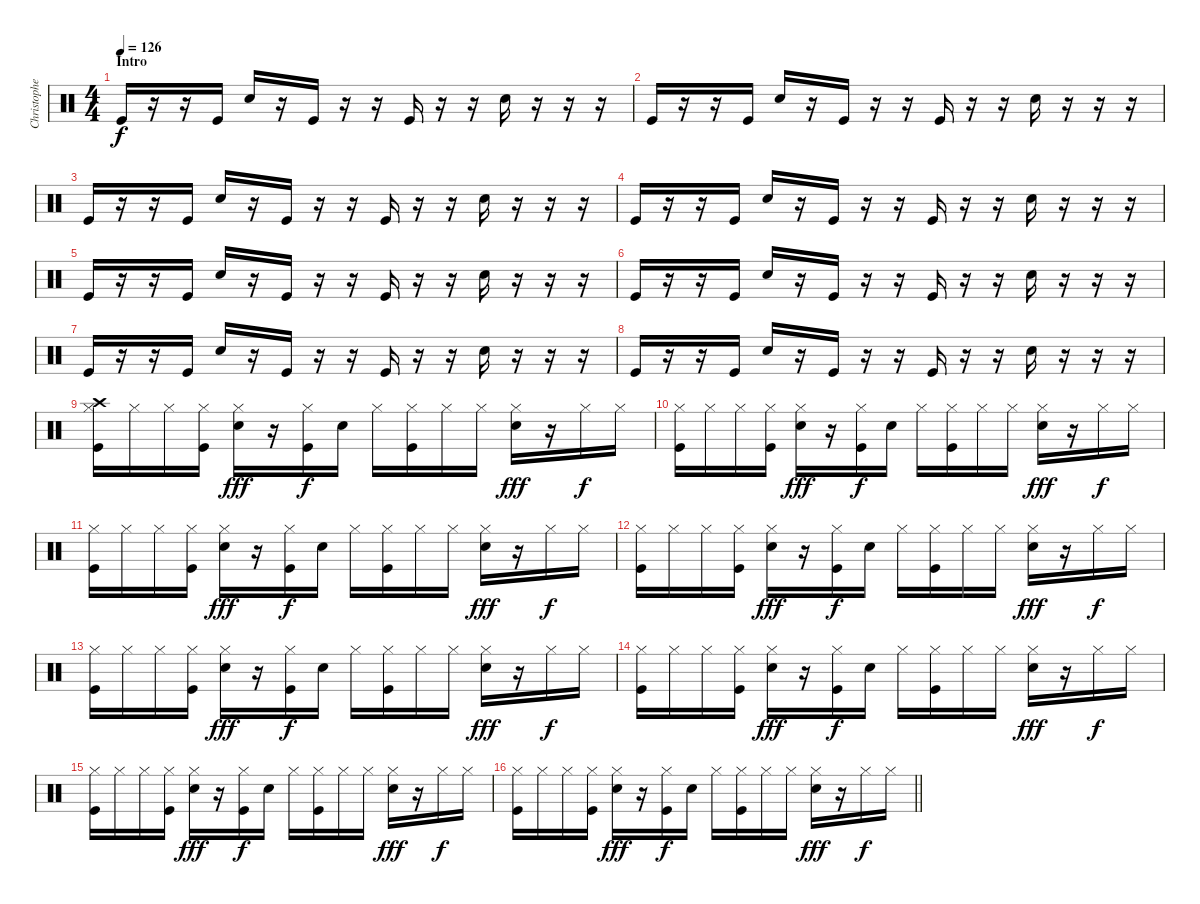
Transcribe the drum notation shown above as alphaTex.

\track ("Christopher - Drums" "Christophe") {mute instrument percussion}
\staff {score}
\articulation defaults
\ts (4 4)
\section ("" "Intro")
\tempo 126
\clef neutral
\ks c "Kick (hit)".16{dy f}
r.16 r.16 "Kick (hit)".16 "Snare (hit) 2".16 r.16 "Kick (hit)".16 r.16 r.16 "Kick (hit)".16 r.16 r.16 "Snare (hit) 2".16 r.16 r.16 r.16 |
"Kick (hit)".16 r.16 r.16 "Kick (hit)".16 "Snare (hit) 2".16 r.16 "Kick (hit)".16 r.16 r.16 "Kick (hit)".16 r.16 r.16 "Snare (hit) 2".16 r.16 r.16 r.16 |
"Kick (hit)".16 r.16 r.16 "Kick (hit)".16 "Snare (hit) 2".16 r.16 "Kick (hit)".16 r.16 r.16 "Kick (hit)".16 r.16 r.16 "Snare (hit) 2".16 r.16 r.16 r.16 |
"Kick (hit)".16 r.16 r.16 "Kick (hit)".16 "Snare (hit) 2".16 r.16 "Kick (hit)".16 r.16 r.16 "Kick (hit)".16 r.16 r.16 "Snare (hit) 2".16 r.16 r.16 r.16 |
"Kick (hit)".16 r.16 r.16 "Kick (hit)".16 "Snare (hit) 2".16 r.16 "Kick (hit)".16 r.16 r.16 "Kick (hit)".16 r.16 r.16 "Snare (hit) 2".16 r.16 r.16 r.16 |
"Kick (hit)".16 r.16 r.16 "Kick (hit)".16 "Snare (hit) 2".16 r.16 "Kick (hit)".16 r.16 r.16 "Kick (hit)".16 r.16 r.16 "Snare (hit) 2".16 r.16 r.16 r.16 |
"Kick (hit)".16 r.16 r.16 "Kick (hit)".16 "Snare (hit) 2".16 r.16 "Kick (hit)".16 r.16 r.16 "Kick (hit)".16 r.16 r.16 "Snare (hit) 2".16 r.16 r.16 r.16 |
"Kick (hit)".16 r.16 r.16 "Kick (hit)".16 "Snare (hit) 2".16 r.16 "Kick (hit)".16 r.16 r.16 "Kick (hit)".16 r.16 r.16 "Snare (hit) 2".16 r.16 r.16 r.16 |
("Crash high (hit)" "Hi-Hat (closed)" "Kick (hit)").16 "Hi-Hat (closed)".16 "Hi-Hat (closed)".16 ("Hi-Hat (closed)" "Kick (hit)").16 ("Hi-Hat (closed)" "Snare (hit) 2").16{dy fff} r.16 ("Hi-Hat (closed)" "Kick (hit)").16{dy f} "Snare (hit) 2".16 "Hi-Hat (closed)".16 ("Hi-Hat (closed)" "Kick (hit)").16 "Hi-Hat (closed)".16 "Hi-Hat (closed)".16 ("Hi-Hat (closed)" "Snare (hit) 2").16{dy fff} r.16 "Hi-Hat (closed)".16{dy f} "Hi-Hat (closed)".16 |
("Hi-Hat (closed)" "Kick (hit)").16 "Hi-Hat (closed)".16 "Hi-Hat (closed)".16 ("Hi-Hat (closed)" "Kick (hit)").16 ("Hi-Hat (closed)" "Snare (hit) 2").16{dy fff} r.16 ("Hi-Hat (closed)" "Kick (hit)").16{dy f} "Snare (hit) 2".16 "Hi-Hat (closed)".16 ("Hi-Hat (closed)" "Kick (hit)").16 "Hi-Hat (closed)".16 "Hi-Hat (closed)".16 ("Hi-Hat (closed)" "Snare (hit) 2").16{dy fff} r.16 "Hi-Hat (closed)".16{dy f} "Hi-Hat (closed)".16 |
("Hi-Hat (closed)" "Kick (hit)").16 "Hi-Hat (closed)".16 "Hi-Hat (closed)".16 ("Hi-Hat (closed)" "Kick (hit)").16 ("Hi-Hat (closed)" "Snare (hit) 2").16{dy fff} r.16 ("Hi-Hat (closed)" "Kick (hit)").16{dy f} "Snare (hit) 2".16 "Hi-Hat (closed)".16 ("Hi-Hat (closed)" "Kick (hit)").16 "Hi-Hat (closed)".16 "Hi-Hat (closed)".16 ("Hi-Hat (closed)" "Snare (hit) 2").16{dy fff} r.16 "Hi-Hat (closed)".16{dy f} "Hi-Hat (closed)".16 |
("Hi-Hat (closed)" "Kick (hit)").16 "Hi-Hat (closed)".16 "Hi-Hat (closed)".16 ("Hi-Hat (closed)" "Kick (hit)").16 ("Hi-Hat (closed)" "Snare (hit) 2").16{dy fff} r.16 ("Hi-Hat (closed)" "Kick (hit)").16{dy f} "Snare (hit) 2".16 "Hi-Hat (closed)".16 ("Hi-Hat (closed)" "Kick (hit)").16 "Hi-Hat (closed)".16 "Hi-Hat (closed)".16 ("Hi-Hat (closed)" "Snare (hit) 2").16{dy fff} r.16 "Hi-Hat (closed)".16{dy f} "Hi-Hat (closed)".16 |
("Hi-Hat (closed)" "Kick (hit)").16 "Hi-Hat (closed)".16 "Hi-Hat (closed)".16 ("Hi-Hat (closed)" "Kick (hit)").16 ("Hi-Hat (closed)" "Snare (hit) 2").16{dy fff} r.16 ("Hi-Hat (closed)" "Kick (hit)").16{dy f} "Snare (hit) 2".16 "Hi-Hat (closed)".16 ("Hi-Hat (closed)" "Kick (hit)").16 "Hi-Hat (closed)".16 "Hi-Hat (closed)".16 ("Hi-Hat (closed)" "Snare (hit) 2").16{dy fff} r.16 "Hi-Hat (closed)".16{dy f} "Hi-Hat (closed)".16 |
("Hi-Hat (closed)" "Kick (hit)").16 "Hi-Hat (closed)".16 "Hi-Hat (closed)".16 ("Hi-Hat (closed)" "Kick (hit)").16 ("Hi-Hat (closed)" "Snare (hit) 2").16{dy fff} r.16 ("Hi-Hat (closed)" "Kick (hit)").16{dy f} "Snare (hit) 2".16 "Hi-Hat (closed)".16 ("Hi-Hat (closed)" "Kick (hit)").16 "Hi-Hat (closed)".16 "Hi-Hat (closed)".16 ("Hi-Hat (closed)" "Snare (hit) 2").16{dy fff} r.16 "Hi-Hat (closed)".16{dy f} "Hi-Hat (closed)".16 |
("Hi-Hat (closed)" "Kick (hit)").16 "Hi-Hat (closed)".16 "Hi-Hat (closed)".16 ("Hi-Hat (closed)" "Kick (hit)").16 ("Hi-Hat (closed)" "Snare (hit) 2").16{dy fff} r.16 ("Hi-Hat (closed)" "Kick (hit)").16{dy f} "Snare (hit) 2".16 "Hi-Hat (closed)".16 ("Hi-Hat (closed)" "Kick (hit)").16 "Hi-Hat (closed)".16 "Hi-Hat (closed)".16 ("Hi-Hat (closed)" "Snare (hit) 2").16{dy fff} r.16 "Hi-Hat (closed)".16{dy f} "Hi-Hat (closed)".16 |
\barLineRight lightlight
("Hi-Hat (closed)" "Kick (hit)").16 "Hi-Hat (closed)".16 "Hi-Hat (closed)".16 ("Hi-Hat (closed)" "Kick (hit)").16 ("Hi-Hat (closed)" "Snare (hit) 2").16{dy fff} r.16 ("Hi-Hat (closed)" "Kick (hit)").16{dy f} "Snare (hit) 2".16 "Hi-Hat (closed)".16 ("Hi-Hat (closed)" "Kick (hit)").16 "Hi-Hat (closed)".16 "Hi-Hat (closed)".16 ("Hi-Hat (closed)" "Snare (hit) 2").16{dy fff} r.16 "Hi-Hat (closed)".16{dy f} "Hi-Hat (closed)".16
